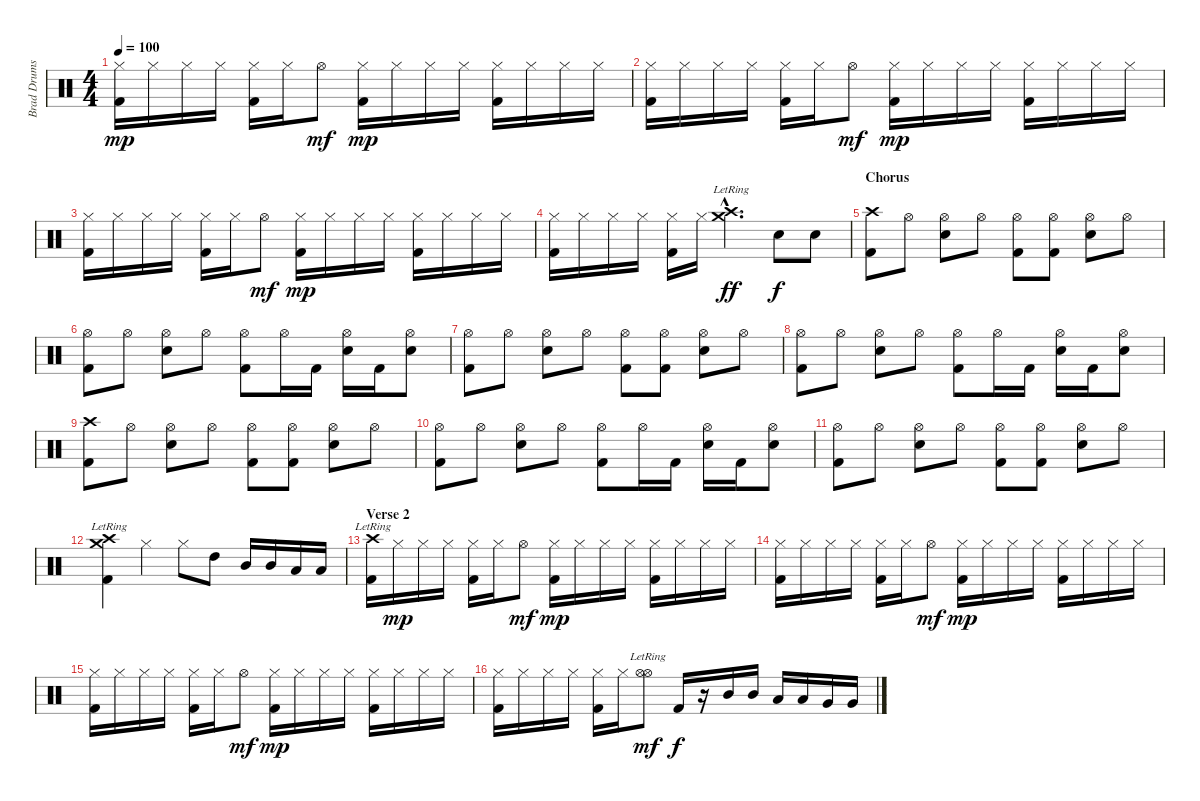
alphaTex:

\track ("Brad Drums" "Brad Drums") {instrument percussion}
\staff {score}
\articulation defaults
\ts (4 4)
\tempo 100
\clef neutral
\ks c
("Hi-Hat (closed)" "Kick (hit) 2").16{dy mp} "Hi-Hat (closed)".16 "Hi-Hat (closed)".16 "Hi-Hat (closed)".16 ("Hi-Hat (closed)" "Kick (hit) 2").16 "Hi-Hat (closed)".16 "Hi-Hat (open)".8{dy mf} ("Hi-Hat (closed)" "Kick (hit) 2").16{dy mp} "Hi-Hat (closed)".16 "Hi-Hat (closed)".16 "Hi-Hat (closed)".16 ("Hi-Hat (closed)" "Kick (hit) 2").16 "Hi-Hat (closed)".16 "Hi-Hat (closed)".16 "Hi-Hat (closed)".16 |
("Hi-Hat (closed)" "Kick (hit) 2").16 "Hi-Hat (closed)".16 "Hi-Hat (closed)".16 "Hi-Hat (closed)".16 ("Hi-Hat (closed)" "Kick (hit) 2").16 "Hi-Hat (closed)".16 "Hi-Hat (open)".8{dy mf} ("Hi-Hat (closed)" "Kick (hit) 2").16{dy mp} "Hi-Hat (closed)".16 "Hi-Hat (closed)".16 "Hi-Hat (closed)".16 ("Hi-Hat (closed)" "Kick (hit) 2").16 "Hi-Hat (closed)".16 "Hi-Hat (closed)".16 "Hi-Hat (closed)".16 |
("Hi-Hat (closed)" "Kick (hit) 2").16 "Hi-Hat (closed)".16 "Hi-Hat (closed)".16 "Hi-Hat (closed)".16 ("Hi-Hat (closed)" "Kick (hit) 2").16 "Hi-Hat (closed)".16 "Hi-Hat (open)".8{dy mf} ("Hi-Hat (closed)" "Kick (hit) 2").16{dy mp} "Hi-Hat (closed)".16 "Hi-Hat (closed)".16 "Hi-Hat (closed)".16 ("Hi-Hat (closed)" "Kick (hit) 2").16 "Hi-Hat (closed)".16 "Hi-Hat (closed)".16 "Hi-Hat (closed)".16 |
("Hi-Hat (closed)" "Kick (hit) 2").16 "Hi-Hat (closed)".16 "Hi-Hat (closed)".16 "Hi-Hat (closed)".16 ("Hi-Hat (closed)" "Kick (hit) 2").16 "Hi-Hat (closed)".16 ("Crash high (hit)"{hac lr} "Crash medium (hit)"{hac lr}).4{d dy ff} "Electric Snare (hit)".8{dy f} "Electric Snare (hit)".8 |
\section ("" "Chorus")
("Crash high (hit)" "Kick (hit) 2").8 "Hi-Hat (open)".8 ("Hi-Hat (open)" "Electric Snare (hit)").8 "Hi-Hat (open)".8 ("Hi-Hat (open)" "Kick (hit) 2").8 ("Hi-Hat (open)" "Kick (hit) 2").8 ("Hi-Hat (open)" "Electric Snare (hit)").8 "Hi-Hat (open)".8 |
("Hi-Hat (open)" "Kick (hit) 2").8 "Hi-Hat (open)".8 ("Hi-Hat (open)" "Electric Snare (hit)").8 "Hi-Hat (open)".8 ("Hi-Hat (open)" "Kick (hit) 2").8 "Hi-Hat (open)".16 "Kick (hit) 2".16 ("Hi-Hat (open)" "Electric Snare (hit)").16 "Kick (hit) 2".16 ("Hi-Hat (open)" "Electric Snare (hit)").8 |
("Hi-Hat (open)" "Kick (hit) 2").8 "Hi-Hat (open)".8 ("Hi-Hat (open)" "Electric Snare (hit)").8 "Hi-Hat (open)".8 ("Hi-Hat (open)" "Kick (hit) 2").8 ("Hi-Hat (open)" "Kick (hit) 2").8 ("Hi-Hat (open)" "Electric Snare (hit)").8 "Hi-Hat (open)".8 |
("Hi-Hat (open)" "Kick (hit) 2").8 "Hi-Hat (open)".8 ("Hi-Hat (open)" "Electric Snare (hit)").8 "Hi-Hat (open)".8 ("Hi-Hat (open)" "Kick (hit) 2").8 "Hi-Hat (open)".16 "Kick (hit) 2".16 ("Hi-Hat (open)" "Electric Snare (hit)").16 "Kick (hit) 2".16 ("Hi-Hat (open)" "Electric Snare (hit)").8 |
("Crash high (hit)" "Kick (hit) 2").8 "Hi-Hat (open)".8 ("Hi-Hat (open)" "Electric Snare (hit)").8 "Hi-Hat (open)".8 ("Hi-Hat (open)" "Kick (hit) 2").8 ("Hi-Hat (open)" "Kick (hit) 2").8 ("Hi-Hat (open)" "Electric Snare (hit)").8 "Hi-Hat (open)".8 |
("Hi-Hat (open)" "Kick (hit) 2").8 "Hi-Hat (open)".8 ("Hi-Hat (open)" "Electric Snare (hit)").8 "Hi-Hat (open)".8 ("Hi-Hat (open)" "Kick (hit) 2").8 "Hi-Hat (open)".16 "Kick (hit) 2".16 ("Hi-Hat (open)" "Electric Snare (hit)").16 "Kick (hit) 2".16 ("Hi-Hat (open)" "Electric Snare (hit)").8 |
("Hi-Hat (open)" "Kick (hit) 2").8 "Hi-Hat (open)".8 ("Hi-Hat (open)" "Electric Snare (hit)").8 "Hi-Hat (open)".8 ("Hi-Hat (open)" "Kick (hit) 2").8 ("Hi-Hat (open)" "Kick (hit) 2").8 ("Hi-Hat (open)" "Electric Snare (hit)").8 "Hi-Hat (open)".8 |
("Crash high (hit)"{lr} "Crash medium (hit)"{lr} "Kick (hit) 2").4 "Hi-Hat (closed)".4 "Hi-Hat (closed)".8 "High Tom (hit)".8 "Mid Tom (hit)".16 "Mid Tom (hit)".16 "Low Tom (hit)".16 "Low Tom (hit)".16 |
\section ("" "Verse 2")
("Crash high (hit)"{lr} "Kick (hit) 2").16 "Hi-Hat (closed)".16{dy mp} "Hi-Hat (closed)".16 "Hi-Hat (closed)".16 ("Hi-Hat (closed)" "Kick (hit) 2").16 "Hi-Hat (closed)".16 "Hi-Hat (open)".8{dy mf} ("Hi-Hat (closed)" "Kick (hit) 2").16{dy mp} "Hi-Hat (closed)".16 "Hi-Hat (closed)".16 "Hi-Hat (closed)".16 ("Hi-Hat (closed)" "Kick (hit) 2").16 "Hi-Hat (closed)".16 "Hi-Hat (closed)".16 "Hi-Hat (closed)".16 |
("Hi-Hat (closed)" "Kick (hit) 2").16 "Hi-Hat (closed)".16 "Hi-Hat (closed)".16 "Hi-Hat (closed)".16 ("Hi-Hat (closed)" "Kick (hit) 2").16 "Hi-Hat (closed)".16 "Hi-Hat (open)".8{dy mf} ("Hi-Hat (closed)" "Kick (hit) 2").16{dy mp} "Hi-Hat (closed)".16 "Hi-Hat (closed)".16 "Hi-Hat (closed)".16 ("Hi-Hat (closed)" "Kick (hit) 2").16 "Hi-Hat (closed)".16 "Hi-Hat (closed)".16 "Hi-Hat (closed)".16 |
("Hi-Hat (closed)" "Kick (hit) 2").16 "Hi-Hat (closed)".16 "Hi-Hat (closed)".16 "Hi-Hat (closed)".16 ("Hi-Hat (closed)" "Kick (hit) 2").16 "Hi-Hat (closed)".16 "Hi-Hat (open)".8{dy mf} ("Hi-Hat (closed)" "Kick (hit) 2").16{dy mp} "Hi-Hat (closed)".16 "Hi-Hat (closed)".16 "Hi-Hat (closed)".16 ("Hi-Hat (closed)" "Kick (hit) 2").16 "Hi-Hat (closed)".16 "Hi-Hat (closed)".16 "Hi-Hat (closed)".16 |
("Hi-Hat (closed)" "Kick (hit) 2").16 "Hi-Hat (closed)".16 "Hi-Hat (closed)".16 "Hi-Hat (closed)".16 ("Hi-Hat (closed)" "Kick (hit) 2").16 "Hi-Hat (closed)".16 ("Hi-Hat (open)" "Hi-Hat (open)"{lr}).8{dy mf} "Kick (hit) 2".16{dy f} r.16 "Mid Tom (hit)".16 "Mid Tom (hit)".16 "Low Tom (hit)".16 "Low Tom (hit)".16 "Very Low Tom (hit)".16 "Very Low Tom (hit)".16
